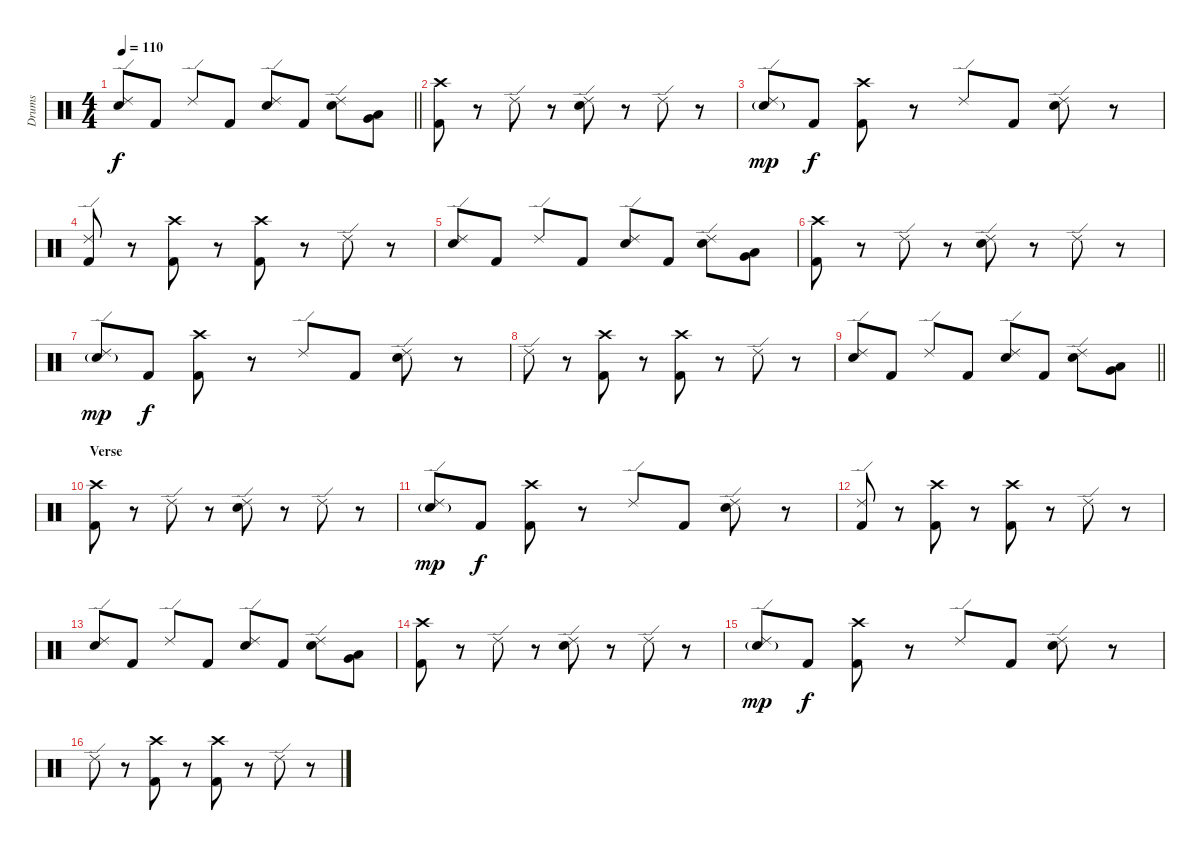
\track ("Drums" "Drums") {instrument percussion}
\staff {score}
\articulation defaults
\ts (4 4)
\tempo 110
\clef neutral
\barLineRight lightlight
\ks c
("Ride (edge) 2" "Snare (hit) 2").8{dy f} "Kick (hit) 2".8 "Ride (edge) 2".8 "Kick (hit) 2".8 ("Ride (edge) 2" "Snare (hit) 2").8 "Kick (hit) 2".8 ("Ride (edge) 2" "Snare (hit) 2").8 ("Very Low Tom (hit)" "Low Floor Tom (hit)").8 |
("Crash high (hit)" "Kick (hit) 2").8 r.8 "Ride (edge) 2".8 r.8 ("Ride (edge) 2" "Snare (hit) 2").8 r.8 "Ride (edge) 2".8 r.8 |
("Ride (edge) 2" "Snare (hit) 2"{g}).8{dy mp} "Kick (hit) 2".8{dy f} ("Crash high (hit)" "Kick (hit) 2").8 r.8 "Ride (edge) 2".8 "Kick (hit) 2".8 ("Ride (edge) 2" "Snare (hit) 2").8 r.8 |
("Ride (edge) 2" "Kick (hit) 2").8 r.8 ("Crash high (hit)" "Kick (hit) 2").8 r.8 ("Crash high (hit)" "Kick (hit) 2").8 r.8 "Ride (edge) 2".8 r.8 |
("Ride (edge) 2" "Snare (hit) 2").8 "Kick (hit) 2".8 "Ride (edge) 2".8 "Kick (hit) 2".8 ("Ride (edge) 2" "Snare (hit) 2").8 "Kick (hit) 2".8 ("Ride (edge) 2" "Snare (hit) 2").8 ("Very Low Tom (hit)" "Low Floor Tom (hit)").8 |
("Crash high (hit)" "Kick (hit) 2").8 r.8 "Ride (edge) 2".8 r.8 ("Ride (edge) 2" "Snare (hit) 2").8 r.8 "Ride (edge) 2".8 r.8 |
("Ride (edge) 2" "Snare (hit) 2"{g}).8{dy mp} "Kick (hit) 2".8{dy f} ("Crash high (hit)" "Kick (hit) 2").8 r.8 "Ride (edge) 2".8 "Kick (hit) 2".8 ("Ride (edge) 2" "Snare (hit) 2").8 r.8 |
"Ride (edge) 2".8 r.8 ("Crash high (hit)" "Kick (hit) 2").8 r.8 ("Crash high (hit)" "Kick (hit) 2").8 r.8 "Ride (edge) 2".8 r.8 |
\barLineRight lightlight
("Ride (edge) 2" "Snare (hit) 2").8 "Kick (hit) 2".8 "Ride (edge) 2".8 "Kick (hit) 2".8 ("Ride (edge) 2" "Snare (hit) 2").8 "Kick (hit) 2".8 ("Ride (edge) 2" "Snare (hit) 2").8 ("Very Low Tom (hit)" "Low Floor Tom (hit)").8 |
\section ("" "Verse")
("Crash high (hit)" "Kick (hit) 2").8 r.8 "Ride (edge) 2".8 r.8 ("Ride (edge) 2" "Snare (hit) 2").8 r.8 "Ride (edge) 2".8 r.8 |
("Ride (edge) 2" "Snare (hit) 2"{g}).8{dy mp} "Kick (hit) 2".8{dy f} ("Crash high (hit)" "Kick (hit) 2").8 r.8 "Ride (edge) 2".8 "Kick (hit) 2".8 ("Ride (edge) 2" "Snare (hit) 2").8 r.8 |
("Ride (edge) 2" "Kick (hit) 2").8 r.8 ("Crash high (hit)" "Kick (hit) 2").8 r.8 ("Crash high (hit)" "Kick (hit) 2").8 r.8 "Ride (edge) 2".8 r.8 |
("Ride (edge) 2" "Snare (hit) 2").8 "Kick (hit) 2".8 "Ride (edge) 2".8 "Kick (hit) 2".8 ("Ride (edge) 2" "Snare (hit) 2").8 "Kick (hit) 2".8 ("Ride (edge) 2" "Snare (hit) 2").8 ("Very Low Tom (hit)" "Low Floor Tom (hit)").8 |
("Crash high (hit)" "Kick (hit) 2").8 r.8 "Ride (edge) 2".8 r.8 ("Ride (edge) 2" "Snare (hit) 2").8 r.8 "Ride (edge) 2".8 r.8 |
("Ride (edge) 2" "Snare (hit) 2"{g}).8{dy mp} "Kick (hit) 2".8{dy f} ("Crash high (hit)" "Kick (hit) 2").8 r.8 "Ride (edge) 2".8 "Kick (hit) 2".8 ("Ride (edge) 2" "Snare (hit) 2").8 r.8 |
"Ride (edge) 2".8 r.8 ("Crash high (hit)" "Kick (hit) 2").8 r.8 ("Crash high (hit)" "Kick (hit) 2").8 r.8 "Ride (edge) 2".8 r.8
